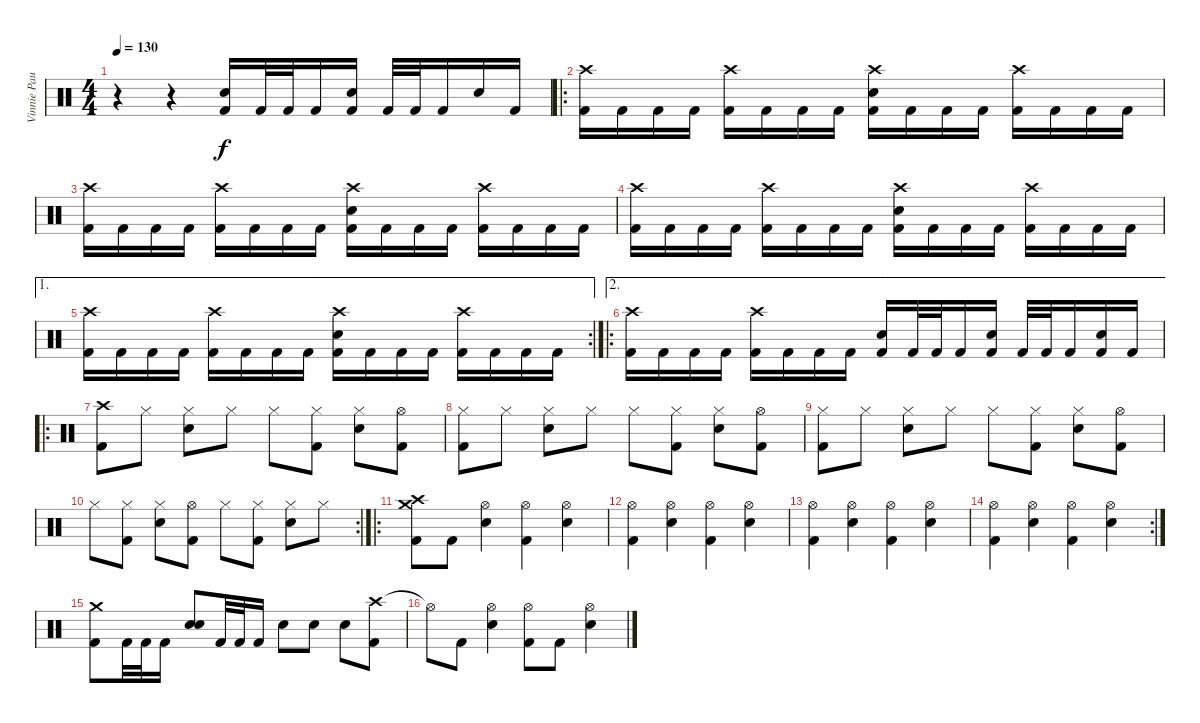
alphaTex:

\track ("Vinnie Paul" "Vinnie Pau") {instrument percussion}
\staff {score}
\articulation defaults
\ts (4 4)
\tempo 130
\clef neutral
\ks c
r.4{dy f} r.4 ("Snare (hit) 2" "Kick (hit) 2").16 "Kick (hit) 2".32 "Kick (hit) 2".32 "Kick (hit) 2".16 ("Snare (hit) 2" "Kick (hit) 2").16 "Kick (hit) 2".32 "Kick (hit) 2".32 "Kick (hit) 2".16 "Snare (hit) 2".16 "Kick (hit) 2".16 |
\ro
("Crash high (hit)" "Kick (hit) 2").16 "Kick (hit) 2".16 "Kick (hit) 2".16 "Kick (hit) 2".16 ("Crash high (hit)" "Kick (hit) 2").16 "Kick (hit) 2".16 "Kick (hit) 2".16 "Kick (hit) 2".16 ("Crash high (hit)" "Snare (hit) 2" "Kick (hit) 2").16 "Kick (hit) 2".16 "Kick (hit) 2".16 "Kick (hit) 2".16 ("Crash high (hit)" "Kick (hit) 2").16 "Kick (hit) 2".16 "Kick (hit) 2".16 "Kick (hit) 2".16 |
("Crash high (hit)" "Kick (hit) 2").16 "Kick (hit) 2".16 "Kick (hit) 2".16 "Kick (hit) 2".16 ("Crash high (hit)" "Kick (hit) 2").16 "Kick (hit) 2".16 "Kick (hit) 2".16 "Kick (hit) 2".16 ("Crash high (hit)" "Snare (hit) 2" "Kick (hit) 2").16 "Kick (hit) 2".16 "Kick (hit) 2".16 "Kick (hit) 2".16 ("Crash high (hit)" "Kick (hit) 2").16 "Kick (hit) 2".16 "Kick (hit) 2".16 "Kick (hit) 2".16 |
("Crash high (hit)" "Kick (hit) 2").16 "Kick (hit) 2".16 "Kick (hit) 2".16 "Kick (hit) 2".16 ("Crash high (hit)" "Kick (hit) 2").16 "Kick (hit) 2".16 "Kick (hit) 2".16 "Kick (hit) 2".16 ("Crash high (hit)" "Snare (hit) 2" "Kick (hit) 2").16 "Kick (hit) 2".16 "Kick (hit) 2".16 "Kick (hit) 2".16 ("Crash high (hit)" "Kick (hit) 2").16 "Kick (hit) 2".16 "Kick (hit) 2".16 "Kick (hit) 2".16 |
\ae 1
\rc 2
("Crash high (hit)" "Kick (hit) 2").16 "Kick (hit) 2".16 "Kick (hit) 2".16 "Kick (hit) 2".16 ("Crash high (hit)" "Kick (hit) 2").16 "Kick (hit) 2".16 "Kick (hit) 2".16 "Kick (hit) 2".16 ("Crash high (hit)" "Snare (hit) 2" "Kick (hit) 2").16 "Kick (hit) 2".16 "Kick (hit) 2".16 "Kick (hit) 2".16 ("Crash high (hit)" "Kick (hit) 2").16 "Kick (hit) 2".16 "Kick (hit) 2".16 "Kick (hit) 2".16 |
\ae 2
\ro
("Crash high (hit)" "Kick (hit) 2").16 "Kick (hit) 2".16 "Kick (hit) 2".16 "Kick (hit) 2".16 ("Crash high (hit)" "Kick (hit) 2").16 "Kick (hit) 2".16 "Kick (hit) 2".16 "Kick (hit) 2".16 ("Snare (hit) 2" "Kick (hit) 2").16 "Kick (hit) 2".32 "Kick (hit) 2".32 "Kick (hit) 2".16 ("Snare (hit) 2" "Kick (hit) 2").16 "Kick (hit) 2".32 "Kick (hit) 2".32 "Kick (hit) 2".16 ("Snare (hit) 2" "Kick (hit) 2").16 "Kick (hit) 2".16 |
\ro
("Crash high (hit)" "Kick (hit) 2").8 "Hi-Hat (closed)".8 ("Hi-Hat (closed)" "Snare (hit) 2").8 "Hi-Hat (closed)".8 "Hi-Hat (closed)".8 ("Hi-Hat (closed)" "Kick (hit) 2").8 ("Hi-Hat (closed)" "Snare (hit) 2").8 ("Hi-Hat (open)" "Kick (hit) 2").8 |
("Hi-Hat (closed)" "Kick (hit) 2").8 "Hi-Hat (closed)".8 ("Hi-Hat (closed)" "Snare (hit) 2").8 "Hi-Hat (closed)".8 "Hi-Hat (closed)".8 ("Hi-Hat (closed)" "Kick (hit) 2").8 ("Hi-Hat (closed)" "Snare (hit) 2").8 ("Hi-Hat (open)" "Kick (hit) 2").8 |
("Hi-Hat (closed)" "Kick (hit) 2").8 "Hi-Hat (closed)".8 ("Hi-Hat (closed)" "Snare (hit) 2").8 "Hi-Hat (closed)".8 "Hi-Hat (closed)".8 ("Hi-Hat (closed)" "Kick (hit) 2").8 ("Hi-Hat (closed)" "Snare (hit) 2").8 ("Hi-Hat (open)" "Kick (hit) 2").8 |
\rc 2 "Hi-Hat (closed)".8
("Hi-Hat (closed)" "Kick (hit) 2").8 ("Hi-Hat (closed)" "Snare (hit) 2").8 ("Hi-Hat (open)" "Kick (hit) 2").8 "Hi-Hat (closed)".8 ("Hi-Hat (closed)" "Kick (hit) 2").8 ("Hi-Hat (closed)" "Snare (hit) 2").8 "Hi-Hat (closed)".8 |
\ro
("Crash high (hit)" "Crash medium (hit)" "Kick (hit) 2").8 "Kick (hit) 2".8 ("Hi-Hat (open)" "Snare (hit) 2").4 ("Hi-Hat (open)" "Kick (hit) 2").4 ("Hi-Hat (open)" "Snare (hit) 2").4 |
("Hi-Hat (open)" "Kick (hit) 2").4 ("Hi-Hat (open)" "Snare (hit) 2").4 ("Hi-Hat (open)" "Kick (hit) 2").4 ("Hi-Hat (open)" "Snare (hit) 2").4 |
("Hi-Hat (open)" "Kick (hit) 2").4 ("Hi-Hat (open)" "Snare (hit) 2").4 ("Hi-Hat (open)" "Kick (hit) 2").4 ("Hi-Hat (open)" "Snare (hit) 2").4 |
\rc 2
("Hi-Hat (open)" "Kick (hit) 2").4 ("Hi-Hat (open)" "Snare (hit) 2").4 ("Hi-Hat (open)" "Kick (hit) 2").4 ("Hi-Hat (open)" "Snare (hit) 2").4 |
("Crash medium (hit)" "Kick (hit) 2").8 "Kick (hit) 2".32 "Kick (hit) 2".32 "Kick (hit) 2".16 ("Snare (hit) 2" "Snare (hit) 2").8{bd 120} "Kick (hit) 2".32 "Kick (hit) 2".32 "Kick (hit) 2".16 "Snare (hit) 2".8 "Snare (hit) 2".8 "Snare (hit) 2".8 ("Crash high (hit)" "Kick (hit) 2").8 |
"Hi-Hat (open)"{t}.8 "Kick (hit) 2".8 ("Hi-Hat (open)" "Snare (hit) 2").4 ("Hi-Hat (open)" "Kick (hit) 2").8 "Kick (hit) 2".8 ("Hi-Hat (open)" "Snare (hit) 2").4
